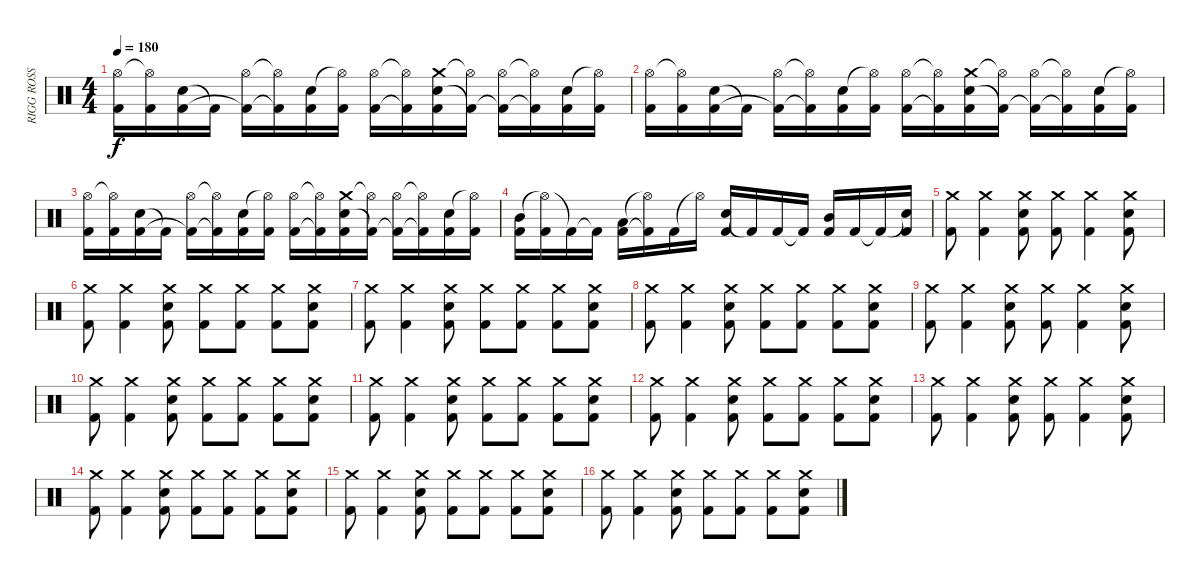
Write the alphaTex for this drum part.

\track ("RIGG ROSS" "RIGG ROSS") {instrument percussion}
\staff {score}
\articulation defaults
\ts (4 4)
\tempo 180
\clef neutral
\ks c
("Hi-Hat (open)" "Kick (hit) 2").16{dy f} ("Hi-Hat (open)"{t} "Kick (hit) 2").16 ("Electric Snare (hit)" "Kick (hit) 2").16 "Kick (hit) 2"{t}.16 ("Hi-Hat (open)" "Kick (hit) 2"{t}).16 ("Hi-Hat (open)"{t} "Kick (hit) 2"{t}).16 ("Electric Snare (hit)" "Kick (hit) 2").16 ("Hi-Hat (open)"{t} "Kick (hit) 2").16 ("Hi-Hat (open)" "Kick (hit) 2").16 ("Hi-Hat (open)"{t} "Kick (hit) 2"{t}).16 ("Crash medium (hit)" "Electric Snare (hit)" "Kick (hit) 2").16 ("Hi-Hat (open)"{t} "Kick (hit) 2"{t}).16 ("Hi-Hat (open)" "Kick (hit) 2"{t}).16 ("Hi-Hat (open)"{t} "Kick (hit) 2"{t}).16 ("Electric Snare (hit)" "Kick (hit) 2").16 ("Hi-Hat (open)"{t} "Kick (hit) 2").16 |
("Hi-Hat (open)" "Kick (hit) 2").16 ("Hi-Hat (open)"{t} "Kick (hit) 2").16 ("Electric Snare (hit)" "Kick (hit) 2").16 "Kick (hit) 2"{t}.16 ("Hi-Hat (open)" "Kick (hit) 2"{t}).16 ("Hi-Hat (open)"{t} "Kick (hit) 2"{t}).16 ("Electric Snare (hit)" "Kick (hit) 2").16 ("Hi-Hat (open)"{t} "Kick (hit) 2").16 ("Hi-Hat (open)" "Kick (hit) 2").16 ("Hi-Hat (open)"{t} "Kick (hit) 2"{t}).16 ("Crash medium (hit)" "Electric Snare (hit)" "Kick (hit) 2").16 ("Hi-Hat (open)"{t} "Kick (hit) 2"{t}).16 ("Hi-Hat (open)" "Kick (hit) 2"{t}).16 ("Hi-Hat (open)"{t} "Kick (hit) 2"{t}).16 ("Electric Snare (hit)" "Kick (hit) 2").16 ("Hi-Hat (open)"{t} "Kick (hit) 2").16 |
("Hi-Hat (open)" "Kick (hit) 2").16 ("Hi-Hat (open)"{t} "Kick (hit) 2").16 ("Electric Snare (hit)" "Kick (hit) 2").16 "Kick (hit) 2"{t}.16 ("Hi-Hat (open)" "Kick (hit) 2"{t}).16 ("Hi-Hat (open)"{t} "Kick (hit) 2"{t}).16 ("Electric Snare (hit)" "Kick (hit) 2").16 ("Hi-Hat (open)"{t} "Kick (hit) 2").16 ("Hi-Hat (open)" "Kick (hit) 2").16 ("Hi-Hat (open)"{t} "Kick (hit) 2"{t}).16 ("Crash medium (hit)" "Electric Snare (hit)" "Kick (hit) 2").16 ("Hi-Hat (open)"{t} "Kick (hit) 2"{t}).16 ("Hi-Hat (open)" "Kick (hit) 2"{t}).16 ("Hi-Hat (open)"{t} "Kick (hit) 2"{t}).16 ("Electric Snare (hit)" "Kick (hit) 2").16 ("Hi-Hat (open)"{t} "Kick (hit) 2").16 |
("Mid Tom (hit)" "Kick (hit) 2").16 ("Hi-Hat (open)"{t} "Kick (hit) 2").16 "Kick (hit) 2"{t}.16 "Kick (hit) 2"{t}.16 ("Low Tom (hit)" "Kick (hit) 2").16 ("Hi-Hat (open)"{t} "Kick (hit) 2"{t}).16 "Kick (hit) 2".16 "Hi-Hat (open)"{t}.16 ("Electric Snare (hit)" "Kick (hit) 2").16 "Kick (hit) 2"{t}.16 "Kick (hit) 2".16 "Kick (hit) 2"{t}.16 ("Mid Tom (hit)" "Kick (hit) 2").16 "Kick (hit) 2".16 "Kick (hit) 2"{t}.16 ("Snare (hit)"{t} "Kick (hit) 2").16 |
("Crash medium (hit)" "Kick (hit) 2").8 ("Crash medium (hit)" "Kick (hit) 2").4 ("Crash medium (hit)" "Electric Snare (hit)" "Kick (hit) 2").8 ("Crash medium (hit)" "Kick (hit) 2").8 ("Crash medium (hit)" "Kick (hit) 2").4 ("Crash medium (hit)" "Electric Snare (hit)" "Kick (hit) 2").8 |
("Crash medium (hit)" "Kick (hit) 2").8 ("Crash medium (hit)" "Kick (hit) 2").4 ("Crash medium (hit)" "Electric Snare (hit)" "Kick (hit) 2").8 ("Crash medium (hit)" "Kick (hit) 2").8 ("Crash medium (hit)" "Kick (hit) 2").8 ("Crash medium (hit)" "Kick (hit) 2").8 ("Crash medium (hit)" "Electric Snare (hit)" "Kick (hit) 2").8 |
("Crash medium (hit)" "Kick (hit) 2").8 ("Crash medium (hit)" "Kick (hit) 2").4 ("Crash medium (hit)" "Electric Snare (hit)" "Kick (hit) 2").8 ("Crash medium (hit)" "Kick (hit) 2").8 ("Crash medium (hit)" "Kick (hit) 2").8 ("Crash medium (hit)" "Kick (hit) 2").8 ("Crash medium (hit)" "Electric Snare (hit)" "Kick (hit) 2").8 |
("Crash medium (hit)" "Kick (hit) 2").8 ("Crash medium (hit)" "Kick (hit) 2").4 ("Crash medium (hit)" "Electric Snare (hit)" "Kick (hit) 2").8 ("Crash medium (hit)" "Kick (hit) 2").8 ("Crash medium (hit)" "Kick (hit) 2").8 ("Crash medium (hit)" "Kick (hit) 2").8 ("Crash medium (hit)" "Electric Snare (hit)" "Kick (hit) 2").8 |
("Crash medium (hit)" "Kick (hit) 2").8 ("Crash medium (hit)" "Kick (hit) 2").4 ("Crash medium (hit)" "Electric Snare (hit)" "Kick (hit) 2").8 ("Crash medium (hit)" "Kick (hit) 2").8 ("Crash medium (hit)" "Kick (hit) 2").4 ("Crash medium (hit)" "Electric Snare (hit)" "Kick (hit) 2").8 |
("Crash medium (hit)" "Kick (hit) 2").8 ("Crash medium (hit)" "Kick (hit) 2").4 ("Crash medium (hit)" "Electric Snare (hit)" "Kick (hit) 2").8 ("Crash medium (hit)" "Kick (hit) 2").8 ("Crash medium (hit)" "Kick (hit) 2").8 ("Crash medium (hit)" "Kick (hit) 2").8 ("Crash medium (hit)" "Electric Snare (hit)" "Kick (hit) 2").8 |
("Crash medium (hit)" "Kick (hit) 2").8 ("Crash medium (hit)" "Kick (hit) 2").4 ("Crash medium (hit)" "Electric Snare (hit)" "Kick (hit) 2").8 ("Crash medium (hit)" "Kick (hit) 2").8 ("Crash medium (hit)" "Kick (hit) 2").8 ("Crash medium (hit)" "Kick (hit) 2").8 ("Crash medium (hit)" "Electric Snare (hit)" "Kick (hit) 2").8 |
("Crash medium (hit)" "Kick (hit) 2").8 ("Crash medium (hit)" "Kick (hit) 2").4 ("Crash medium (hit)" "Electric Snare (hit)" "Kick (hit) 2").8 ("Crash medium (hit)" "Kick (hit) 2").8 ("Crash medium (hit)" "Kick (hit) 2").8 ("Crash medium (hit)" "Kick (hit) 2").8 ("Crash medium (hit)" "Electric Snare (hit)" "Kick (hit) 2").8 |
("Crash medium (hit)" "Kick (hit) 2").8 ("Crash medium (hit)" "Kick (hit) 2").4 ("Crash medium (hit)" "Electric Snare (hit)" "Kick (hit) 2").8 ("Crash medium (hit)" "Kick (hit) 2").8 ("Crash medium (hit)" "Kick (hit) 2").4 ("Crash medium (hit)" "Electric Snare (hit)" "Kick (hit) 2").8 |
("Crash medium (hit)" "Kick (hit) 2").8 ("Crash medium (hit)" "Kick (hit) 2").4 ("Crash medium (hit)" "Electric Snare (hit)" "Kick (hit) 2").8 ("Crash medium (hit)" "Kick (hit) 2").8 ("Crash medium (hit)" "Kick (hit) 2").8 ("Crash medium (hit)" "Kick (hit) 2").8 ("Crash medium (hit)" "Electric Snare (hit)" "Kick (hit) 2").8 |
("Crash medium (hit)" "Kick (hit) 2").8 ("Crash medium (hit)" "Kick (hit) 2").4 ("Crash medium (hit)" "Electric Snare (hit)" "Kick (hit) 2").8 ("Crash medium (hit)" "Kick (hit) 2").8 ("Crash medium (hit)" "Kick (hit) 2").8 ("Crash medium (hit)" "Kick (hit) 2").8 ("Crash medium (hit)" "Electric Snare (hit)" "Kick (hit) 2").8 |
("Crash medium (hit)" "Kick (hit) 2").8 ("Crash medium (hit)" "Kick (hit) 2").4 ("Crash medium (hit)" "Electric Snare (hit)" "Kick (hit) 2").8 ("Crash medium (hit)" "Kick (hit) 2").8 ("Crash medium (hit)" "Kick (hit) 2").8 ("Crash medium (hit)" "Kick (hit) 2").8 ("Crash medium (hit)" "Electric Snare (hit)" "Kick (hit) 2").8
